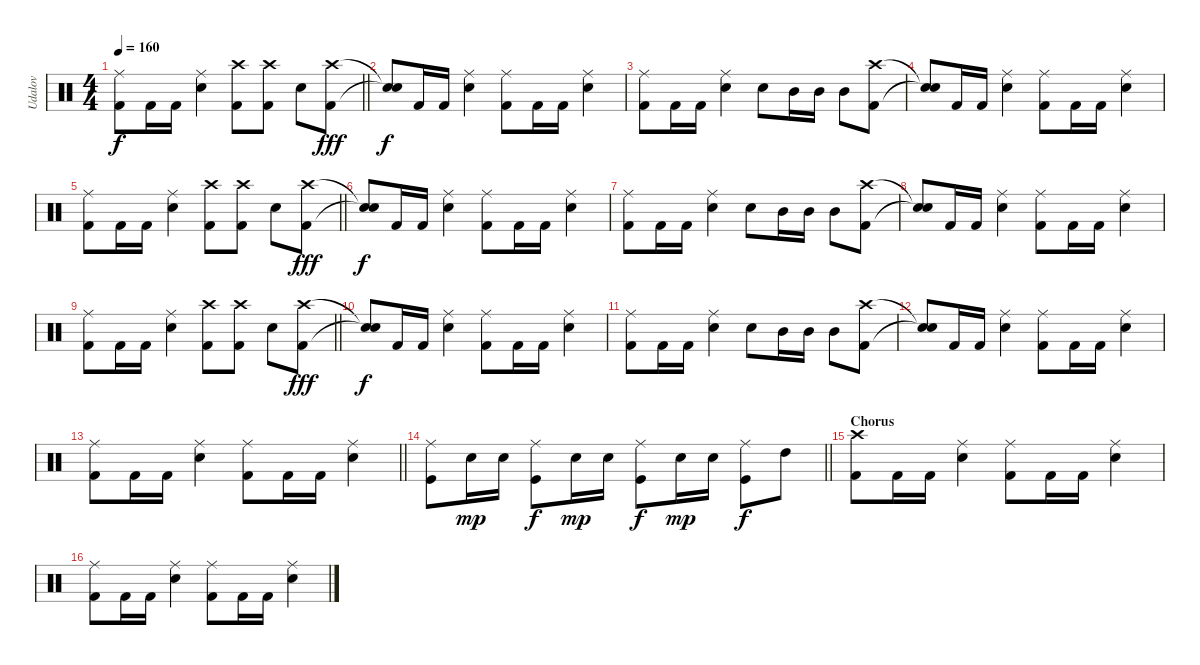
\track ("Udalov" "Udalov") {instrument percussion}
\staff {score}
\articulation defaults
\ts (4 4)
\tempo 160
\clef neutral
\barLineRight lightlight
\ks c
("Kick (hit) 2" "Ride (middle)").8{dy f} "Kick (hit) 2".16 "Kick (hit) 2".16 ("Snare (hit) 2" "Ride (middle)").4 ("Kick (hit) 2" "Crash high (hit)").8 ("Kick (hit) 2" "Crash high (hit)").8 "Snare (hit) 2".8 ("Kick (hit) 2" "Crash high (hit)").8{dy fff} |
("Snare (hit)"{t} "Snare (hit)"{t}).8{dy f} "Kick (hit) 2".16 "Kick (hit) 2".16 ("Snare (hit) 2" "Ride (middle)").4 ("Kick (hit) 2" "Ride (middle)").8 "Kick (hit) 2".16 "Kick (hit) 2".16 ("Snare (hit) 2" "Ride (middle)").4 |
("Kick (hit) 2" "Ride (middle)").8 "Kick (hit) 2".16 "Kick (hit) 2".16 ("Snare (hit) 2" "Ride (middle)").4 "Snare (hit) 2".8 "Mid Tom (hit)".16 "Mid Tom (hit)".16 "Mid Tom (hit)".8 ("Kick (hit) 2" "Crash high (hit)").8 |
("Snare (hit)"{t} "Snare (hit)"{t}).8 "Kick (hit) 2".16 "Kick (hit) 2".16 ("Snare (hit) 2" "Ride (middle)").4 ("Kick (hit) 2" "Ride (middle)").8 "Kick (hit) 2".16 "Kick (hit) 2".16 ("Snare (hit) 2" "Ride (middle)").4 |
\barLineRight lightlight
("Kick (hit) 2" "Ride (middle)").8 "Kick (hit) 2".16 "Kick (hit) 2".16 ("Snare (hit) 2" "Ride (middle)").4 ("Kick (hit) 2" "Crash high (hit)").8 ("Kick (hit) 2" "Crash high (hit)").8 "Snare (hit) 2".8 ("Kick (hit) 2" "Crash high (hit)").8{dy fff} |
("Snare (hit)"{t} "Snare (hit)"{t}).8{dy f} "Kick (hit) 2".16 "Kick (hit) 2".16 ("Snare (hit) 2" "Ride (middle)").4 ("Kick (hit) 2" "Ride (middle)").8 "Kick (hit) 2".16 "Kick (hit) 2".16 ("Snare (hit) 2" "Ride (middle)").4 |
("Kick (hit) 2" "Ride (middle)").8 "Kick (hit) 2".16 "Kick (hit) 2".16 ("Snare (hit) 2" "Ride (middle)").4 "Snare (hit) 2".8 "Mid Tom (hit)".16 "Mid Tom (hit)".16 "Mid Tom (hit)".8 ("Kick (hit) 2" "Crash high (hit)").8 |
("Snare (hit)"{t} "Snare (hit)"{t}).8 "Kick (hit) 2".16 "Kick (hit) 2".16 ("Snare (hit) 2" "Ride (middle)").4 ("Kick (hit) 2" "Ride (middle)").8 "Kick (hit) 2".16 "Kick (hit) 2".16 ("Snare (hit) 2" "Ride (middle)").4 |
\barLineRight lightlight
("Kick (hit) 2" "Ride (middle)").8 "Kick (hit) 2".16 "Kick (hit) 2".16 ("Snare (hit) 2" "Ride (middle)").4 ("Kick (hit) 2" "Crash high (hit)").8 ("Kick (hit) 2" "Crash high (hit)").8 "Snare (hit) 2".8 ("Kick (hit) 2" "Crash high (hit)").8{dy fff} |
("Snare (hit)"{t} "Snare (hit)"{t}).8{dy f} "Kick (hit) 2".16 "Kick (hit) 2".16 ("Snare (hit) 2" "Ride (middle)").4 ("Kick (hit) 2" "Ride (middle)").8 "Kick (hit) 2".16 "Kick (hit) 2".16 ("Snare (hit) 2" "Ride (middle)").4 |
("Kick (hit) 2" "Ride (middle)").8 "Kick (hit) 2".16 "Kick (hit) 2".16 ("Snare (hit) 2" "Ride (middle)").4 "Snare (hit) 2".8 "Mid Tom (hit)".16 "Mid Tom (hit)".16 "Mid Tom (hit)".8 ("Kick (hit) 2" "Crash high (hit)").8 |
("Snare (hit)"{t} "Snare (hit)"{t}).8 "Kick (hit) 2".16 "Kick (hit) 2".16 ("Snare (hit) 2" "Ride (middle)").4 ("Kick (hit) 2" "Ride (middle)").8 "Kick (hit) 2".16 "Kick (hit) 2".16 ("Snare (hit) 2" "Ride (middle)").4 |
\barLineRight lightlight
("Kick (hit) 2" "Ride (middle)").8 "Kick (hit) 2".16 "Kick (hit) 2".16 ("Snare (hit) 2" "Ride (middle)").4 ("Kick (hit) 2" "Ride (middle)").8 "Kick (hit) 2".16 "Kick (hit) 2".16 ("Snare (hit) 2" "Ride (middle)").4 |
\barLineRight lightlight
("Ride (middle)" "Kick (hit)").8 "Snare (hit) 2".16{dy mp} "Snare (hit) 2".16 ("Ride (middle)" "Kick (hit)").8{dy f} "Snare (hit) 2".16{dy mp} "Snare (hit) 2".16 ("Ride (middle)" "Kick (hit)").8{dy f} "Snare (hit) 2".16{dy mp} "Snare (hit) 2".16 ("Ride (middle)" "Kick (hit)").8{dy f} "High Tom (hit)".8 |
\section ("" "Chorus")
("Kick (hit) 2" "Crash high (hit)").8 "Kick (hit) 2".16 "Kick (hit) 2".16 ("Snare (hit) 2" "Ride (middle)").4 ("Kick (hit) 2" "Ride (middle)").8 "Kick (hit) 2".16 "Kick (hit) 2".16 ("Snare (hit) 2" "Ride (middle)").4 |
("Kick (hit) 2" "Ride (middle)").8 "Kick (hit) 2".16 "Kick (hit) 2".16 ("Snare (hit) 2" "Ride (middle)").4 ("Kick (hit) 2" "Ride (middle)").8 "Kick (hit) 2".16 "Kick (hit) 2".16 ("Snare (hit) 2" "Ride (middle)").4
